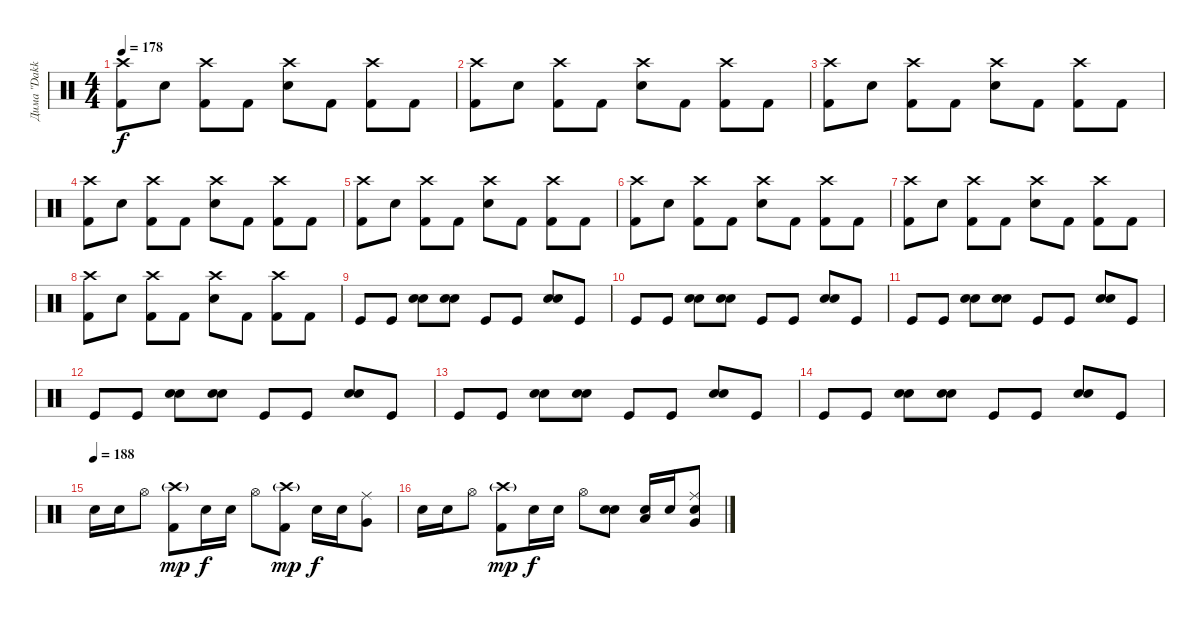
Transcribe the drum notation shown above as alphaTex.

\track ("Дима \"Dakkar\" Кеменов" "Дима \"Dakk") {instrument percussion}
\staff
\articulation defaults
\ts (4 4)
\tempo 178
\clef neutral
\ks c
("Kick (hit) 2" "Crash high (hit)").8{dy f} "Snare (hit) 2".8 ("Kick (hit) 2" "Crash high (hit)").8 "Kick (hit) 2".8 ("Snare (hit) 2" "Crash high (hit)").8 "Kick (hit) 2".8 ("Kick (hit) 2" "Crash high (hit)").8 "Kick (hit) 2".8 |
("Kick (hit) 2" "Crash high (hit)").8 "Snare (hit) 2".8 ("Kick (hit) 2" "Crash high (hit)").8 "Kick (hit) 2".8 ("Snare (hit) 2" "Crash high (hit)").8 "Kick (hit) 2".8 ("Kick (hit) 2" "Crash high (hit)").8 "Kick (hit) 2".8 |
("Kick (hit) 2" "Crash high (hit)").8 "Snare (hit) 2".8 ("Kick (hit) 2" "Crash high (hit)").8 "Kick (hit) 2".8 ("Snare (hit) 2" "Crash high (hit)").8 "Kick (hit) 2".8 ("Kick (hit) 2" "Crash high (hit)").8 "Kick (hit) 2".8 |
("Kick (hit) 2" "Crash high (hit)").8 "Snare (hit) 2".8 ("Kick (hit) 2" "Crash high (hit)").8 "Kick (hit) 2".8 ("Snare (hit) 2" "Crash high (hit)").8 "Kick (hit) 2".8 ("Kick (hit) 2" "Crash high (hit)").8 "Kick (hit) 2".8 |
("Kick (hit) 2" "Crash high (hit)").8 "Snare (hit) 2".8 ("Kick (hit) 2" "Crash high (hit)").8 "Kick (hit) 2".8 ("Snare (hit) 2" "Crash high (hit)").8 "Kick (hit) 2".8 ("Kick (hit) 2" "Crash high (hit)").8 "Kick (hit) 2".8 |
("Kick (hit) 2" "Crash high (hit)").8 "Snare (hit) 2".8 ("Kick (hit) 2" "Crash high (hit)").8 "Kick (hit) 2".8 ("Snare (hit) 2" "Crash high (hit)").8 "Kick (hit) 2".8 ("Kick (hit) 2" "Crash high (hit)").8 "Kick (hit) 2".8 |
("Kick (hit) 2" "Crash high (hit)").8 "Snare (hit) 2".8 ("Kick (hit) 2" "Crash high (hit)").8 "Kick (hit) 2".8 ("Snare (hit) 2" "Crash high (hit)").8 "Kick (hit) 2".8 ("Kick (hit) 2" "Crash high (hit)").8 "Kick (hit) 2".8 |
("Kick (hit) 2" "Crash high (hit)").8 "Snare (hit) 2".8 ("Kick (hit) 2" "Crash high (hit)").8 "Kick (hit) 2".8 ("Snare (hit) 2" "Crash high (hit)").8 "Kick (hit) 2".8 ("Kick (hit) 2" "Crash high (hit)").8 "Kick (hit) 2".8 |
"Kick (hit)".8 "Kick (hit)".8 ("Hand Clap (hit)" "Electric Snare (hit)").8 ("Hand Clap (hit)" "Electric Snare (hit)").8 "Kick (hit)".8 "Kick (hit)".8 ("Hand Clap (hit)" "Electric Snare (hit)").8 "Kick (hit)".8 |
"Kick (hit)".8 "Kick (hit)".8 ("Hand Clap (hit)" "Electric Snare (hit)").8 ("Hand Clap (hit)" "Electric Snare (hit)").8 "Kick (hit)".8 "Kick (hit)".8 ("Hand Clap (hit)" "Electric Snare (hit)").8 "Kick (hit)".8 |
"Kick (hit)".8 "Kick (hit)".8 ("Hand Clap (hit)" "Electric Snare (hit)").8 ("Hand Clap (hit)" "Electric Snare (hit)").8 "Kick (hit)".8 "Kick (hit)".8 ("Hand Clap (hit)" "Electric Snare (hit)").8 "Kick (hit)".8 |
"Kick (hit)".8 "Kick (hit)".8 ("Hand Clap (hit)" "Electric Snare (hit)").8 ("Hand Clap (hit)" "Electric Snare (hit)").8 "Kick (hit)".8 "Kick (hit)".8 ("Hand Clap (hit)" "Electric Snare (hit)").8 "Kick (hit)".8 |
"Kick (hit)".8 "Kick (hit)".8 ("Hand Clap (hit)" "Electric Snare (hit)").8 ("Hand Clap (hit)" "Electric Snare (hit)").8 "Kick (hit)".8 "Kick (hit)".8 ("Hand Clap (hit)" "Electric Snare (hit)").8 "Kick (hit)".8 |
"Kick (hit)".8 "Kick (hit)".8 ("Hand Clap (hit)" "Electric Snare (hit)").8 ("Hand Clap (hit)" "Electric Snare (hit)").8 "Kick (hit)".8 "Kick (hit)".8 ("Hand Clap (hit)" "Electric Snare (hit)").8 "Kick (hit)".8 |
\tempo (188)
"Electric Snare (hit)".16 "Electric Snare (hit)".16 "Hi-Hat (open)".8 ("Crash high (hit)"{g} "Kick (hit) 2").8{dy mp} "Electric Snare (hit)".16{dy f} "Electric Snare (hit)".16 "Hi-Hat (open)".8 ("Crash high (hit)"{g} "Kick (hit) 2").8{dy mp} "Electric Snare (hit)".16{dy f} "Electric Snare (hit)".16 ("Ride (middle)" "Very Low Tom (hit)").8 |
"Electric Snare (hit)".16 "Electric Snare (hit)".16 "Hi-Hat (open)".8 ("Crash high (hit)"{g} "Kick (hit) 2").8{dy mp} "Electric Snare (hit)".16{dy f} "Electric Snare (hit)".16 "Hi-Hat (open)".8 ("Electric Snare (hit)" "Electric Snare (hit)").8 ("Low Floor Tom (hit)" "Electric Snare (hit)").16 "Electric Snare (hit)".16 ("Ride (middle)" "Electric Snare (hit)" "Very Low Tom (hit)").8
